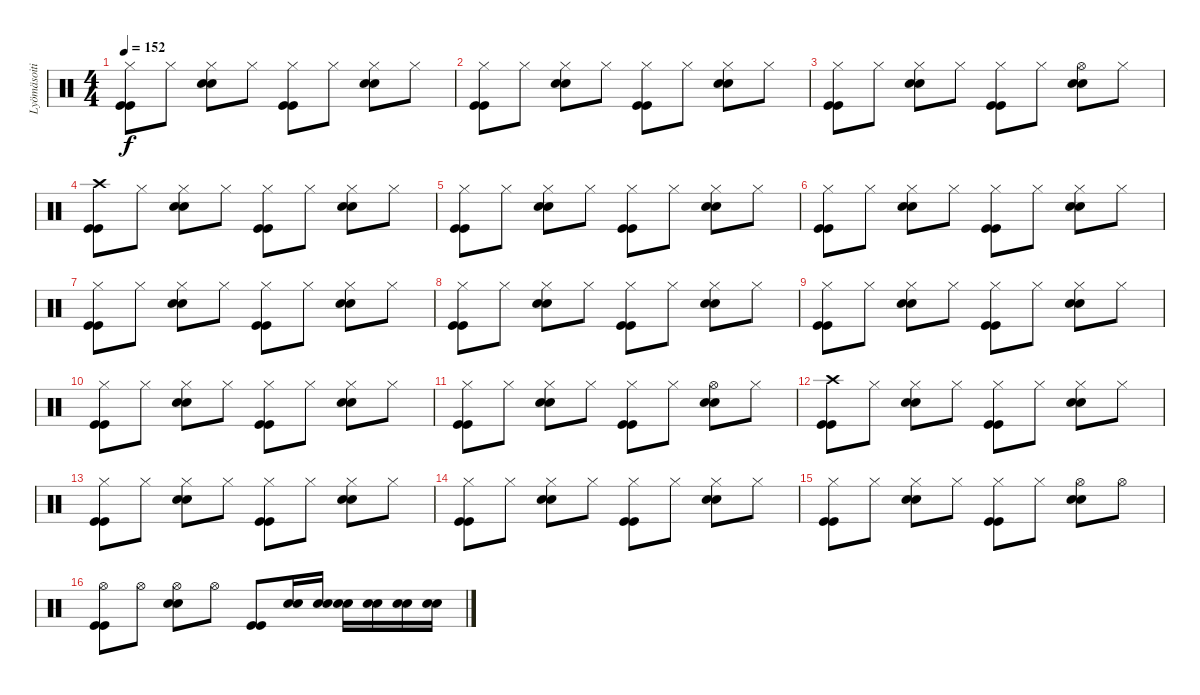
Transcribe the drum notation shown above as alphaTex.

\track ("Lyömäsoitin" "Lyömäsoiti") {instrument percussion}
\staff {score}
\articulation defaults
\ts (4 4)
\tempo 152
\clef neutral
\ks c
("Hi-Hat (closed)" "Kick (hit)" "Kick (hit)").8{dy f} "Hi-Hat (closed)".8 ("Hi-Hat (closed)" "Snare (hit) 2" "Snare (hit) 2").8 "Hi-Hat (closed)".8 ("Hi-Hat (closed)" "Kick (hit)" "Kick (hit)").8 "Hi-Hat (closed)".8 ("Hi-Hat (closed)" "Snare (hit) 2" "Snare (hit) 2").8 "Hi-Hat (closed)".8 |
("Hi-Hat (closed)" "Kick (hit)" "Kick (hit)").8 "Hi-Hat (closed)".8 ("Hi-Hat (closed)" "Snare (hit) 2" "Snare (hit) 2").8 "Hi-Hat (closed)".8 ("Hi-Hat (closed)" "Kick (hit)" "Kick (hit)").8 "Hi-Hat (closed)".8 ("Hi-Hat (closed)" "Snare (hit) 2" "Snare (hit) 2").8 "Hi-Hat (closed)".8 |
("Hi-Hat (closed)" "Kick (hit)" "Kick (hit)").8 "Hi-Hat (closed)".8 ("Hi-Hat (closed)" "Snare (hit) 2" "Snare (hit) 2").8 "Hi-Hat (closed)".8 ("Hi-Hat (closed)" "Kick (hit)" "Kick (hit)").8 "Hi-Hat (closed)".8 ("Hi-Hat (open)" "Snare (hit) 2" "Snare (hit) 2").8 "Hi-Hat (closed)".8 |
("Crash high (hit)" "Kick (hit)" "Kick (hit)").8 "Hi-Hat (closed)".8 ("Hi-Hat (closed)" "Snare (hit) 2" "Snare (hit) 2").8 "Hi-Hat (closed)".8 ("Hi-Hat (closed)" "Kick (hit)" "Kick (hit)").8 "Hi-Hat (closed)".8 ("Hi-Hat (closed)" "Snare (hit) 2" "Snare (hit) 2").8 "Hi-Hat (closed)".8 |
("Hi-Hat (closed)" "Kick (hit)" "Kick (hit)").8 "Hi-Hat (closed)".8 ("Hi-Hat (closed)" "Snare (hit) 2" "Snare (hit) 2").8 "Hi-Hat (closed)".8 ("Hi-Hat (closed)" "Kick (hit)" "Kick (hit)").8 "Hi-Hat (closed)".8 ("Hi-Hat (closed)" "Snare (hit) 2" "Snare (hit) 2").8 "Hi-Hat (closed)".8 |
("Hi-Hat (closed)" "Kick (hit)" "Kick (hit)").8 "Hi-Hat (closed)".8 ("Hi-Hat (closed)" "Snare (hit) 2" "Snare (hit) 2").8 "Hi-Hat (closed)".8 ("Hi-Hat (closed)" "Kick (hit)" "Kick (hit)").8 "Hi-Hat (closed)".8 ("Hi-Hat (closed)" "Snare (hit) 2" "Snare (hit) 2").8 "Hi-Hat (closed)".8 |
("Hi-Hat (closed)" "Kick (hit)" "Kick (hit)").8 "Hi-Hat (closed)".8 ("Hi-Hat (closed)" "Snare (hit) 2" "Snare (hit) 2").8 "Hi-Hat (closed)".8 ("Hi-Hat (closed)" "Kick (hit)" "Kick (hit)").8 "Hi-Hat (closed)".8 ("Hi-Hat (closed)" "Snare (hit) 2" "Snare (hit) 2").8 "Hi-Hat (closed)".8 |
("Hi-Hat (closed)" "Kick (hit)" "Kick (hit)").8 "Hi-Hat (closed)".8 ("Hi-Hat (closed)" "Snare (hit) 2" "Snare (hit) 2").8 "Hi-Hat (closed)".8 ("Hi-Hat (closed)" "Kick (hit)" "Kick (hit)").8 "Hi-Hat (closed)".8 ("Hi-Hat (closed)" "Snare (hit) 2" "Snare (hit) 2").8 "Hi-Hat (closed)".8 |
("Hi-Hat (closed)" "Kick (hit)" "Kick (hit)").8 "Hi-Hat (closed)".8 ("Hi-Hat (closed)" "Snare (hit) 2" "Snare (hit) 2").8 "Hi-Hat (closed)".8 ("Hi-Hat (closed)" "Kick (hit)" "Kick (hit)").8 "Hi-Hat (closed)".8 ("Hi-Hat (closed)" "Snare (hit) 2" "Snare (hit) 2").8 "Hi-Hat (closed)".8 |
("Hi-Hat (closed)" "Kick (hit)" "Kick (hit)").8 "Hi-Hat (closed)".8 ("Hi-Hat (closed)" "Snare (hit) 2" "Snare (hit) 2").8 "Hi-Hat (closed)".8 ("Hi-Hat (closed)" "Kick (hit)" "Kick (hit)").8 "Hi-Hat (closed)".8 ("Hi-Hat (closed)" "Snare (hit) 2" "Snare (hit) 2").8 "Hi-Hat (closed)".8 |
("Hi-Hat (closed)" "Kick (hit)" "Kick (hit)").8 "Hi-Hat (closed)".8 ("Hi-Hat (closed)" "Snare (hit) 2" "Snare (hit) 2").8 "Hi-Hat (closed)".8 ("Hi-Hat (closed)" "Kick (hit)" "Kick (hit)").8 "Hi-Hat (closed)".8 ("Hi-Hat (open)" "Snare (hit) 2" "Snare (hit) 2").8 "Hi-Hat (closed)".8 |
("Crash high (hit)" "Kick (hit)" "Kick (hit)").8 "Hi-Hat (closed)".8 ("Hi-Hat (closed)" "Snare (hit) 2" "Snare (hit) 2").8 "Hi-Hat (closed)".8 ("Hi-Hat (closed)" "Kick (hit)" "Kick (hit)").8 "Hi-Hat (closed)".8 ("Hi-Hat (closed)" "Snare (hit) 2" "Snare (hit) 2").8 "Hi-Hat (closed)".8 |
("Hi-Hat (closed)" "Kick (hit)" "Kick (hit)").8 "Hi-Hat (closed)".8 ("Hi-Hat (closed)" "Snare (hit) 2" "Snare (hit) 2").8 "Hi-Hat (closed)".8 ("Hi-Hat (closed)" "Kick (hit)" "Kick (hit)").8 "Hi-Hat (closed)".8 ("Hi-Hat (closed)" "Snare (hit) 2" "Snare (hit) 2").8 "Hi-Hat (closed)".8 |
("Hi-Hat (closed)" "Kick (hit)" "Kick (hit)").8 "Hi-Hat (closed)".8 ("Hi-Hat (closed)" "Snare (hit) 2" "Snare (hit) 2").8 "Hi-Hat (closed)".8 ("Hi-Hat (closed)" "Kick (hit)" "Kick (hit)").8 "Hi-Hat (closed)".8 ("Hi-Hat (closed)" "Snare (hit) 2" "Snare (hit) 2").8 "Hi-Hat (closed)".8 |
("Hi-Hat (closed)" "Kick (hit)" "Kick (hit)").8 "Hi-Hat (closed)".8 ("Hi-Hat (closed)" "Snare (hit) 2" "Snare (hit) 2").8 "Hi-Hat (closed)".8 ("Hi-Hat (closed)" "Kick (hit)" "Kick (hit)").8 "Hi-Hat (closed)".8 ("Hi-Hat (open)" "Snare (hit) 2" "Snare (hit) 2").8 "Hi-Hat (open)".8 |
("Hi-Hat (open)" "Kick (hit)" "Kick (hit)").8 "Hi-Hat (open)".8 ("Hi-Hat (open)" "Snare (hit) 2" "Snare (hit) 2").8 "Hi-Hat (open)".8 ("Kick (hit)" "Kick (hit)").8 ("Snare (hit) 2" "Snare (hit) 2").16 ("Snare (hit) 2" "Snare (hit) 2").16 ("Snare (hit) 2" "Snare (hit) 2").16 ("Snare (hit) 2" "Snare (hit) 2").16 ("Snare (hit) 2" "Snare (hit) 2").16 ("Snare (hit) 2" "Snare (hit) 2").16
